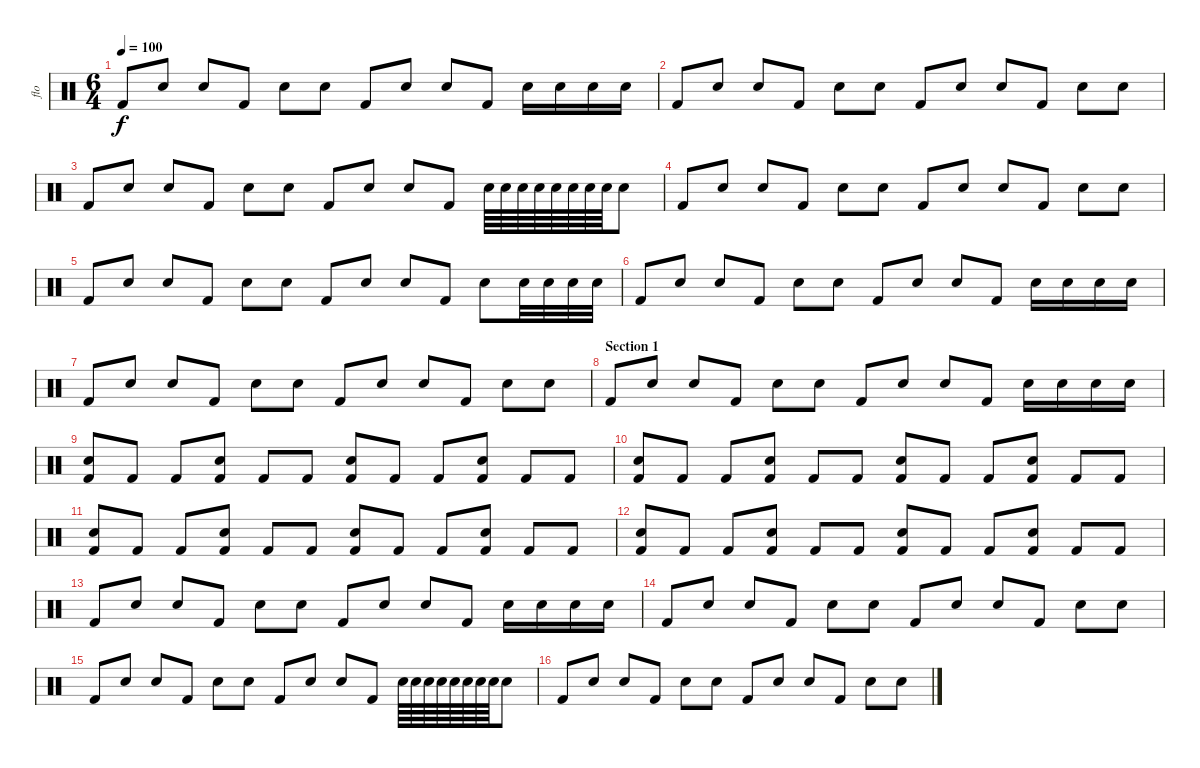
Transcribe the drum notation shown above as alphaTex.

\track ("flo" "flo") {instrument percussion}
\staff {score}
\articulation defaults
\ts (6 4)
\tempo 100
\clef neutral
\ks c "Kick (hit) 2".8{dy f} "Electric Snare (hit)".8 "Electric Snare (hit)".8 "Kick (hit) 2".8 "Electric Snare (hit)".8 "Electric Snare (hit)".8 "Kick (hit) 2".8 "Electric Snare (hit)".8 "Electric Snare (hit)".8 "Kick (hit) 2".8 "Electric Snare (hit)".16 "Electric Snare (hit)".16 "Electric Snare (hit)".16 "Electric Snare (hit)".16
|
"Kick (hit) 2".8 "Electric Snare (hit)".8 "Electric Snare (hit)".8 "Kick (hit) 2".8 "Electric Snare (hit)".8 "Electric Snare (hit)".8 "Kick (hit) 2".8 "Electric Snare (hit)".8 "Electric Snare (hit)".8 "Kick (hit) 2".8 "Electric Snare (hit)".8 "Electric Snare (hit)".8 |
"Kick (hit) 2".8 "Electric Snare (hit)".8 "Electric Snare (hit)".8 "Kick (hit) 2".8 "Electric Snare (hit)".8 "Electric Snare (hit)".8 "Kick (hit) 2".8 "Electric Snare (hit)".8 "Electric Snare (hit)".8 "Kick (hit) 2".8 "Electric Snare (hit)".64 "Electric Snare (hit)".64 "Electric Snare (hit)".64 "Electric Snare (hit)".64 "Electric Snare (hit)".64 "Electric Snare (hit)".64 "Electric Snare (hit)".64 "Electric Snare (hit)".64 "Electric Snare (hit)".8 |
"Kick (hit) 2".8 "Electric Snare (hit)".8 "Electric Snare (hit)".8 "Kick (hit) 2".8 "Electric Snare (hit)".8 "Electric Snare (hit)".8 "Kick (hit) 2".8 "Electric Snare (hit)".8 "Electric Snare (hit)".8 "Kick (hit) 2".8 "Electric Snare (hit)".8 "Electric Snare (hit)".8 |
"Kick (hit) 2".8 "Electric Snare (hit)".8 "Electric Snare (hit)".8 "Kick (hit) 2".8 "Electric Snare (hit)".8 "Electric Snare (hit)".8 "Kick (hit) 2".8 "Electric Snare (hit)".8 "Electric Snare (hit)".8 "Kick (hit) 2".8 "Electric Snare (hit)".8 "Electric Snare (hit)".32 "Electric Snare (hit)".32 "Electric Snare (hit)".32 "Electric Snare (hit)".32 |
"Kick (hit) 2".8 "Electric Snare (hit)".8 "Electric Snare (hit)".8 "Kick (hit) 2".8 "Electric Snare (hit)".8 "Electric Snare (hit)".8 "Kick (hit) 2".8 "Electric Snare (hit)".8 "Electric Snare (hit)".8 "Kick (hit) 2".8 "Electric Snare (hit)".16 "Electric Snare (hit)".16 "Electric Snare (hit)".16 "Electric Snare (hit)".16 |
"Kick (hit) 2".8 "Electric Snare (hit)".8 "Electric Snare (hit)".8 "Kick (hit) 2".8 "Electric Snare (hit)".8 "Electric Snare (hit)".8 "Kick (hit) 2".8 "Electric Snare (hit)".8 "Electric Snare (hit)".8 "Kick (hit) 2".8 "Electric Snare (hit)".8 "Electric Snare (hit)".8 |
\section ("" "Section 1")
"Kick (hit) 2".8 "Electric Snare (hit)".8 "Electric Snare (hit)".8 "Kick (hit) 2".8 "Electric Snare (hit)".8 "Electric Snare (hit)".8 "Kick (hit) 2".8 "Electric Snare (hit)".8 "Electric Snare (hit)".8 "Kick (hit) 2".8 "Electric Snare (hit)".16 "Electric Snare (hit)".16 "Electric Snare (hit)".16 "Electric Snare (hit)".16 |
("Kick (hit) 2" "Electric Snare (hit)").8 "Kick (hit) 2".8 "Kick (hit) 2".8 ("Kick (hit) 2" "Electric Snare (hit)").8 "Kick (hit) 2".8 "Kick (hit) 2".8 ("Kick (hit) 2" "Electric Snare (hit)").8 "Kick (hit) 2".8 "Kick (hit) 2".8 ("Kick (hit) 2" "Electric Snare (hit)").8 "Kick (hit) 2".8 "Kick (hit) 2".8 |
("Kick (hit) 2" "Electric Snare (hit)").8 "Kick (hit) 2".8 "Kick (hit) 2".8 ("Kick (hit) 2" "Electric Snare (hit)").8 "Kick (hit) 2".8 "Kick (hit) 2".8 ("Kick (hit) 2" "Electric Snare (hit)").8 "Kick (hit) 2".8 "Kick (hit) 2".8 ("Kick (hit) 2" "Electric Snare (hit)").8 "Kick (hit) 2".8 "Kick (hit) 2".8 |
("Kick (hit) 2" "Electric Snare (hit)").8 "Kick (hit) 2".8 "Kick (hit) 2".8 ("Kick (hit) 2" "Electric Snare (hit)").8 "Kick (hit) 2".8 "Kick (hit) 2".8 ("Kick (hit) 2" "Electric Snare (hit)").8 "Kick (hit) 2".8 "Kick (hit) 2".8 ("Kick (hit) 2" "Electric Snare (hit)").8 "Kick (hit) 2".8 "Kick (hit) 2".8 |
("Kick (hit) 2" "Electric Snare (hit)").8 "Kick (hit) 2".8 "Kick (hit) 2".8 ("Kick (hit) 2" "Electric Snare (hit)").8 "Kick (hit) 2".8 "Kick (hit) 2".8 ("Kick (hit) 2" "Electric Snare (hit)").8 "Kick (hit) 2".8 "Kick (hit) 2".8 ("Kick (hit) 2" "Electric Snare (hit)").8 "Kick (hit) 2".8 "Kick (hit) 2".8 |
"Kick (hit) 2".8 "Electric Snare (hit)".8 "Electric Snare (hit)".8 "Kick (hit) 2".8 "Electric Snare (hit)".8 "Electric Snare (hit)".8 "Kick (hit) 2".8 "Electric Snare (hit)".8 "Electric Snare (hit)".8 "Kick (hit) 2".8 "Electric Snare (hit)".16 "Electric Snare (hit)".16 "Electric Snare (hit)".16 "Electric Snare (hit)".16 |
"Kick (hit) 2".8 "Electric Snare (hit)".8 "Electric Snare (hit)".8 "Kick (hit) 2".8 "Electric Snare (hit)".8 "Electric Snare (hit)".8 "Kick (hit) 2".8 "Electric Snare (hit)".8 "Electric Snare (hit)".8 "Kick (hit) 2".8 "Electric Snare (hit)".8 "Electric Snare (hit)".8 |
"Kick (hit) 2".8 "Electric Snare (hit)".8 "Electric Snare (hit)".8 "Kick (hit) 2".8 "Electric Snare (hit)".8 "Electric Snare (hit)".8 "Kick (hit) 2".8 "Electric Snare (hit)".8 "Electric Snare (hit)".8 "Kick (hit) 2".8 "Electric Snare (hit)".64 "Electric Snare (hit)".64 "Electric Snare (hit)".64 "Electric Snare (hit)".64 "Electric Snare (hit)".64 "Electric Snare (hit)".64 "Electric Snare (hit)".64 "Electric Snare (hit)".64 "Electric Snare (hit)".8 |
"Kick (hit) 2".8 "Electric Snare (hit)".8 "Electric Snare (hit)".8 "Kick (hit) 2".8 "Electric Snare (hit)".8 "Electric Snare (hit)".8 "Kick (hit) 2".8 "Electric Snare (hit)".8 "Electric Snare (hit)".8 "Kick (hit) 2".8 "Electric Snare (hit)".8 "Electric Snare (hit)".8
